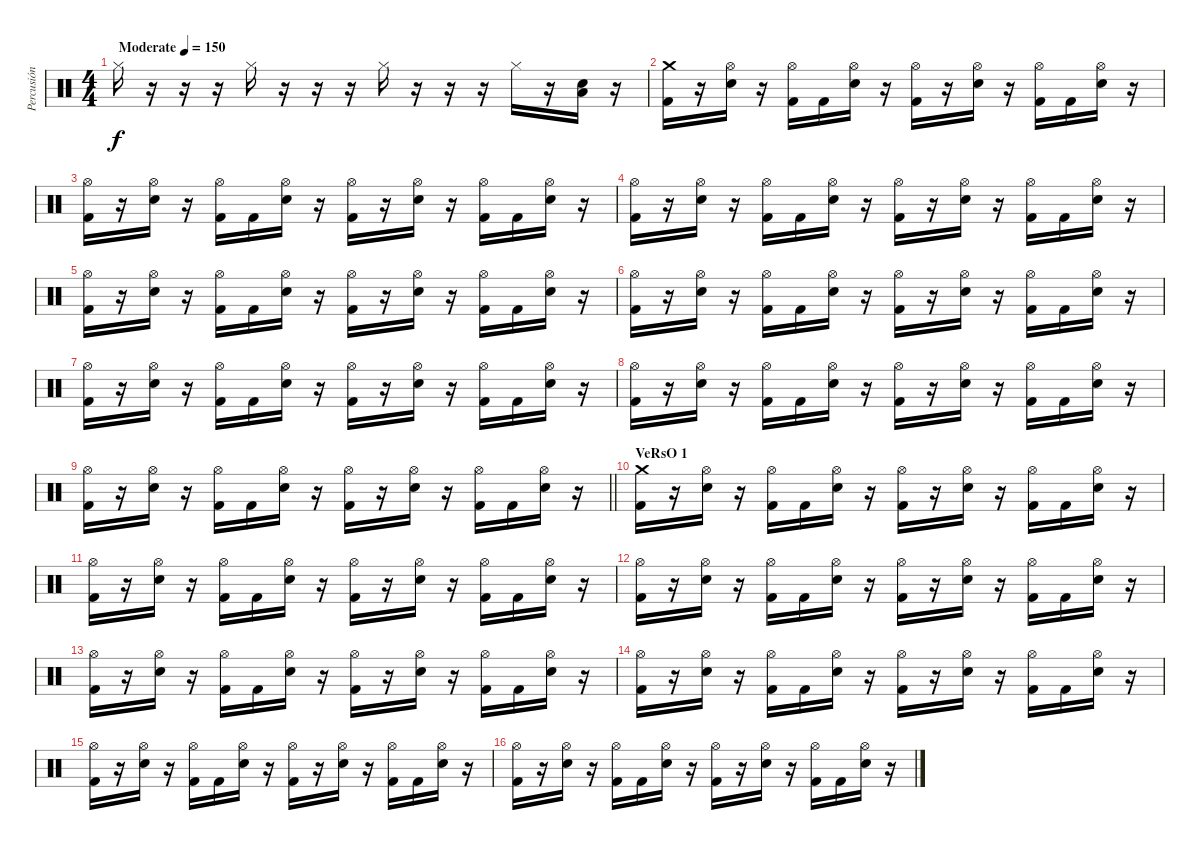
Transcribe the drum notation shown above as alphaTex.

\track ("Percusión" "Percusión") {instrument percussion}
\staff {score}
\articulation defaults
\ts (4 4)
\tempo (150 "Moderate")
\clef neutral
\ks c "Hi-Hat (closed)".16{dy f}
r.16 r.16 r.16 "Hi-Hat (closed)".16 r.16 r.16 r.16 "Hi-Hat (closed)".16 r.16 r.16 r.16 "Hi-Hat (closed)".16 r.16 ("Low Floor Tom (hit)" "Electric Snare (hit)").16 r.16 |
("Crash medium (hit)" "Kick (hit) 2").16 r.16 ("Hi-Hat (open)" "Electric Snare (hit)").16 r.16 ("Hi-Hat (open)" "Kick (hit) 2").16 "Kick (hit) 2".16 ("Hi-Hat (open)" "Electric Snare (hit)").16 r.16 ("Hi-Hat (open)" "Kick (hit) 2").16 r.16 ("Hi-Hat (open)" "Electric Snare (hit)").16 r.16 ("Hi-Hat (open)" "Kick (hit) 2").16 "Kick (hit) 2".16 ("Hi-Hat (open)" "Electric Snare (hit)").16 r.16 |
("Hi-Hat (open)" "Kick (hit) 2").16 r.16 ("Hi-Hat (open)" "Electric Snare (hit)").16 r.16 ("Hi-Hat (open)" "Kick (hit) 2").16 "Kick (hit) 2".16 ("Hi-Hat (open)" "Electric Snare (hit)").16 r.16 ("Hi-Hat (open)" "Kick (hit) 2").16 r.16 ("Hi-Hat (open)" "Electric Snare (hit)").16 r.16 ("Hi-Hat (open)" "Kick (hit) 2").16 "Kick (hit) 2".16 ("Hi-Hat (open)" "Electric Snare (hit)").16 r.16 |
("Hi-Hat (open)" "Kick (hit) 2").16 r.16 ("Hi-Hat (open)" "Electric Snare (hit)").16 r.16 ("Hi-Hat (open)" "Kick (hit) 2").16 "Kick (hit) 2".16 ("Hi-Hat (open)" "Electric Snare (hit)").16 r.16 ("Hi-Hat (open)" "Kick (hit) 2").16 r.16 ("Hi-Hat (open)" "Electric Snare (hit)").16 r.16 ("Hi-Hat (open)" "Kick (hit) 2").16 "Kick (hit) 2".16 ("Hi-Hat (open)" "Electric Snare (hit)").16 r.16 |
("Hi-Hat (open)" "Kick (hit) 2").16 r.16 ("Hi-Hat (open)" "Electric Snare (hit)").16 r.16 ("Hi-Hat (open)" "Kick (hit) 2").16 "Kick (hit) 2".16 ("Hi-Hat (open)" "Electric Snare (hit)").16 r.16 ("Hi-Hat (open)" "Kick (hit) 2").16 r.16 ("Hi-Hat (open)" "Electric Snare (hit)").16 r.16 ("Hi-Hat (open)" "Kick (hit) 2").16 "Kick (hit) 2".16 ("Hi-Hat (open)" "Electric Snare (hit)").16 r.16 |
("Hi-Hat (open)" "Kick (hit) 2").16 r.16 ("Hi-Hat (open)" "Electric Snare (hit)").16 r.16 ("Hi-Hat (open)" "Kick (hit) 2").16 "Kick (hit) 2".16 ("Hi-Hat (open)" "Electric Snare (hit)").16 r.16 ("Hi-Hat (open)" "Kick (hit) 2").16 r.16 ("Hi-Hat (open)" "Electric Snare (hit)").16 r.16 ("Hi-Hat (open)" "Kick (hit) 2").16 "Kick (hit) 2".16 ("Hi-Hat (open)" "Electric Snare (hit)").16 r.16 |
("Hi-Hat (open)" "Kick (hit) 2").16 r.16 ("Hi-Hat (open)" "Electric Snare (hit)").16 r.16 ("Hi-Hat (open)" "Kick (hit) 2").16 "Kick (hit) 2".16 ("Hi-Hat (open)" "Electric Snare (hit)").16 r.16 ("Hi-Hat (open)" "Kick (hit) 2").16 r.16 ("Hi-Hat (open)" "Electric Snare (hit)").16 r.16 ("Hi-Hat (open)" "Kick (hit) 2").16 "Kick (hit) 2".16 ("Hi-Hat (open)" "Electric Snare (hit)").16 r.16 |
("Hi-Hat (open)" "Kick (hit) 2").16 r.16 ("Hi-Hat (open)" "Electric Snare (hit)").16 r.16 ("Hi-Hat (open)" "Kick (hit) 2").16 "Kick (hit) 2".16 ("Hi-Hat (open)" "Electric Snare (hit)").16 r.16 ("Hi-Hat (open)" "Kick (hit) 2").16 r.16 ("Hi-Hat (open)" "Electric Snare (hit)").16 r.16 ("Hi-Hat (open)" "Kick (hit) 2").16 "Kick (hit) 2".16 ("Hi-Hat (open)" "Electric Snare (hit)").16 r.16 |
\barLineRight lightlight
("Hi-Hat (open)" "Kick (hit) 2").16 r.16 ("Hi-Hat (open)" "Electric Snare (hit)").16 r.16 ("Hi-Hat (open)" "Kick (hit) 2").16 "Kick (hit) 2".16 ("Hi-Hat (open)" "Electric Snare (hit)").16 r.16 ("Hi-Hat (open)" "Kick (hit) 2").16 r.16 ("Hi-Hat (open)" "Electric Snare (hit)").16 r.16 ("Hi-Hat (open)" "Kick (hit) 2").16 "Kick (hit) 2".16 ("Hi-Hat (open)" "Electric Snare (hit)").16 r.16 |
\section ("" "VeRsO 1")
("Crash medium (hit)" "Kick (hit) 2").16 r.16 ("Hi-Hat (open)" "Electric Snare (hit)").16 r.16 ("Hi-Hat (open)" "Kick (hit) 2").16 "Kick (hit) 2".16 ("Hi-Hat (open)" "Electric Snare (hit)").16 r.16 ("Hi-Hat (open)" "Kick (hit) 2").16 r.16 ("Hi-Hat (open)" "Electric Snare (hit)").16 r.16 ("Hi-Hat (open)" "Kick (hit) 2").16 "Kick (hit) 2".16 ("Hi-Hat (open)" "Electric Snare (hit)").16 r.16 |
("Hi-Hat (open)" "Kick (hit) 2").16 r.16 ("Hi-Hat (open)" "Electric Snare (hit)").16 r.16 ("Hi-Hat (open)" "Kick (hit) 2").16 "Kick (hit) 2".16 ("Hi-Hat (open)" "Electric Snare (hit)").16 r.16 ("Hi-Hat (open)" "Kick (hit) 2").16 r.16 ("Hi-Hat (open)" "Electric Snare (hit)").16 r.16 ("Hi-Hat (open)" "Kick (hit) 2").16 "Kick (hit) 2".16 ("Hi-Hat (open)" "Electric Snare (hit)").16 r.16 |
("Hi-Hat (open)" "Kick (hit) 2").16 r.16 ("Hi-Hat (open)" "Electric Snare (hit)").16 r.16 ("Hi-Hat (open)" "Kick (hit) 2").16 "Kick (hit) 2".16 ("Hi-Hat (open)" "Electric Snare (hit)").16 r.16 ("Hi-Hat (open)" "Kick (hit) 2").16 r.16 ("Hi-Hat (open)" "Electric Snare (hit)").16 r.16 ("Hi-Hat (open)" "Kick (hit) 2").16 "Kick (hit) 2".16 ("Hi-Hat (open)" "Electric Snare (hit)").16 r.16 |
("Hi-Hat (open)" "Kick (hit) 2").16 r.16 ("Hi-Hat (open)" "Electric Snare (hit)").16 r.16 ("Hi-Hat (open)" "Kick (hit) 2").16 "Kick (hit) 2".16 ("Hi-Hat (open)" "Electric Snare (hit)").16 r.16 ("Hi-Hat (open)" "Kick (hit) 2").16 r.16 ("Hi-Hat (open)" "Electric Snare (hit)").16 r.16 ("Hi-Hat (open)" "Kick (hit) 2").16 "Kick (hit) 2".16 ("Hi-Hat (open)" "Electric Snare (hit)").16 r.16 |
("Hi-Hat (open)" "Kick (hit) 2").16 r.16 ("Hi-Hat (open)" "Electric Snare (hit)").16 r.16 ("Hi-Hat (open)" "Kick (hit) 2").16 "Kick (hit) 2".16 ("Hi-Hat (open)" "Electric Snare (hit)").16 r.16 ("Hi-Hat (open)" "Kick (hit) 2").16 r.16 ("Hi-Hat (open)" "Electric Snare (hit)").16 r.16 ("Hi-Hat (open)" "Kick (hit) 2").16 "Kick (hit) 2".16 ("Hi-Hat (open)" "Electric Snare (hit)").16 r.16 |
("Hi-Hat (open)" "Kick (hit) 2").16 r.16 ("Hi-Hat (open)" "Electric Snare (hit)").16 r.16 ("Hi-Hat (open)" "Kick (hit) 2").16 "Kick (hit) 2".16 ("Hi-Hat (open)" "Electric Snare (hit)").16 r.16 ("Hi-Hat (open)" "Kick (hit) 2").16 r.16 ("Hi-Hat (open)" "Electric Snare (hit)").16 r.16 ("Hi-Hat (open)" "Kick (hit) 2").16 "Kick (hit) 2".16 ("Hi-Hat (open)" "Electric Snare (hit)").16 r.16 |
("Hi-Hat (open)" "Kick (hit) 2").16 r.16 ("Hi-Hat (open)" "Electric Snare (hit)").16 r.16 ("Hi-Hat (open)" "Kick (hit) 2").16 "Kick (hit) 2".16 ("Hi-Hat (open)" "Electric Snare (hit)").16 r.16 ("Hi-Hat (open)" "Kick (hit) 2").16 r.16 ("Hi-Hat (open)" "Electric Snare (hit)").16 r.16 ("Hi-Hat (open)" "Kick (hit) 2").16 "Kick (hit) 2".16 ("Hi-Hat (open)" "Electric Snare (hit)").16 r.16
